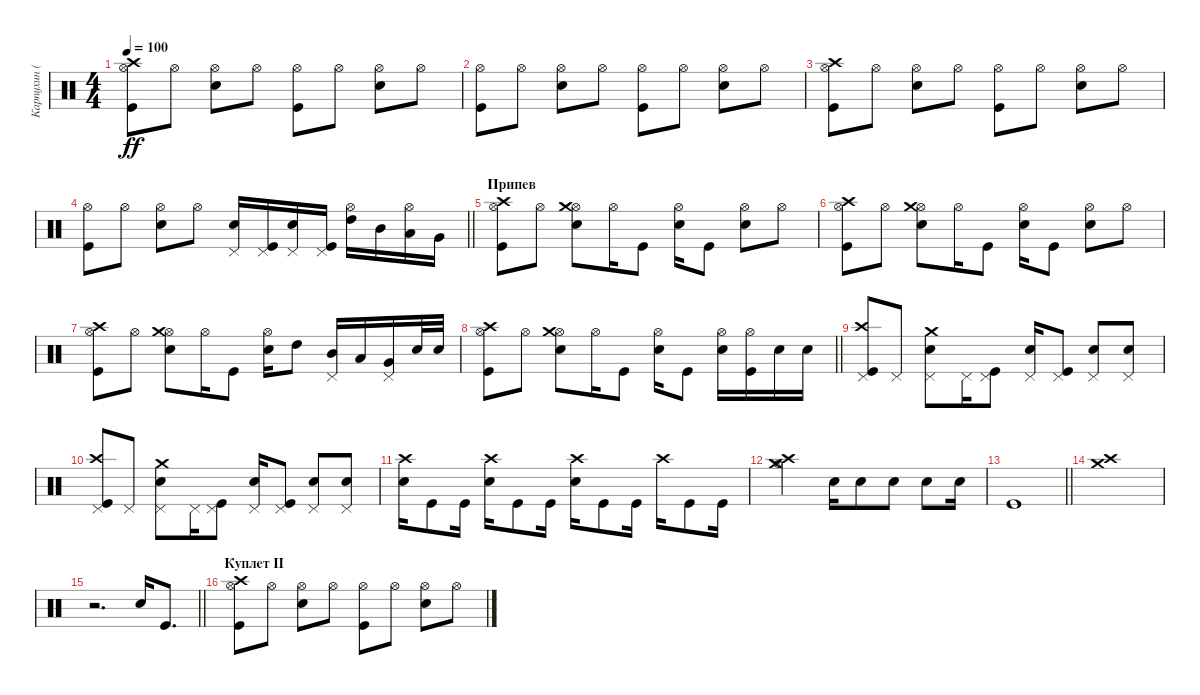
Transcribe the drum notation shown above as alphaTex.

\track ("Карпухин (ударные)" "Карпухин (") {instrument percussion}
\staff {score}
\articulation defaults
\ts (4 4)
\tempo 100
\clef neutral
\ks c
("Hi-Hat (open)" "Kick (hit)" "Crash high (hit)").8{dy ff} "Hi-Hat (open)".8 ("Hi-Hat (open)" "Snare (hit) 2").8 "Hi-Hat (open)".8 ("Hi-Hat (open)" "Kick (hit)").8 "Hi-Hat (open)".8 ("Hi-Hat (open)" "Snare (hit) 2").8 "Hi-Hat (open)".8 |
("Hi-Hat (open)" "Kick (hit)").8 "Hi-Hat (open)".8 ("Hi-Hat (open)" "Snare (hit) 2").8 "Hi-Hat (open)".8 ("Hi-Hat (open)" "Kick (hit)").8 "Hi-Hat (open)".8 ("Hi-Hat (open)" "Snare (hit) 2").8 "Hi-Hat (open)".8 |
("Hi-Hat (open)" "Kick (hit)" "Crash high (hit)").8 "Hi-Hat (open)".8 ("Hi-Hat (open)" "Snare (hit) 2").8 "Hi-Hat (open)".8 ("Hi-Hat (open)" "Kick (hit)").8 "Hi-Hat (open)".8 ("Hi-Hat (open)" "Snare (hit) 2").8 "Hi-Hat (open)".8 |
\barLineRight lightlight
("Hi-Hat (open)" "Kick (hit)").8 "Hi-Hat (open)".8 ("Hi-Hat (open)" "Snare (hit) 2").8 "Hi-Hat (open)".8 ("Pedal Hi-Hat (hit)" "Snare (hit) 2").16 ("Pedal Hi-Hat (hit)" "Kick (hit)").16 ("Pedal Hi-Hat (hit)" "Electric Snare (hit)").16 ("Pedal Hi-Hat (hit)" "Kick (hit)").16 ("Hi-Hat (open)" "High Tom (hit)").16 "Mid Tom (hit)".16 ("Hi-Hat (open)" "Low Tom (hit)").16 "Very Low Tom (hit)".16 |
\section ("" "Припев")
("Hi-Hat (open)" "Kick (hit)" "Crash high (hit)").8 "Hi-Hat (open)".8 ("Hi-Hat (open)" "Snare (hit) 2" "Crash medium (hit)").8 "Hi-Hat (open)".16 "Kick (hit)".8 ("Hi-Hat (open)" "Snare (hit) 2").16 "Kick (hit)".8 ("Hi-Hat (open)" "Snare (hit) 2").8 "Hi-Hat (open)".8 |
("Hi-Hat (open)" "Kick (hit)" "Crash high (hit)").8 "Hi-Hat (open)".8 ("Hi-Hat (open)" "Snare (hit) 2" "Crash medium (hit)").8 "Hi-Hat (open)".16 "Kick (hit)".8 ("Hi-Hat (open)" "Snare (hit) 2").16 "Kick (hit)".8 ("Hi-Hat (open)" "Snare (hit) 2").8 "Hi-Hat (open)".8 |
("Hi-Hat (open)" "Kick (hit)" "Crash high (hit)").8 "Hi-Hat (open)".8 ("Hi-Hat (open)" "Snare (hit) 2" "Crash medium (hit)").8 "Hi-Hat (open)".16 "Kick (hit)".8 ("Hi-Hat (open)" "Snare (hit) 2").16 "High Tom (hit)".8 ("Pedal Hi-Hat (hit)" "Mid Tom (hit)").16 "Low Tom (hit)".16 ("Pedal Hi-Hat (hit)" "Very Low Tom (hit)").16 "Electric Snare (hit)".32 "Snare (hit) 2".32 |
\barLineRight lightlight
("Hi-Hat (open)" "Kick (hit)" "Crash high (hit)").8 "Hi-Hat (open)".8 ("Hi-Hat (open)" "Snare (hit) 2" "Crash medium (hit)").8 "Hi-Hat (open)".16 "Kick (hit)".8 ("Hi-Hat (open)" "Snare (hit) 2").16 "Kick (hit)".8 ("Hi-Hat (open)" "Snare (hit) 2").16 ("Hi-Hat (open)" "Kick (hit)").16 "Snare (hit) 2".16 "Snare (hit) 2".16 |
("Pedal Hi-Hat (hit)" "Kick (hit)" "Crash high (hit)").8 "Pedal Hi-Hat (hit)".8 ("Pedal Hi-Hat (hit)" "Snare (hit) 2" "Crash medium (hit)").8 "Pedal Hi-Hat (hit)".16 ("Pedal Hi-Hat (hit)" "Kick (hit)").8 ("Pedal Hi-Hat (hit)" "Snare (hit) 2").16 ("Pedal Hi-Hat (hit)" "Kick (hit)").8 ("Pedal Hi-Hat (hit)" "Snare (hit) 2").8 ("Pedal Hi-Hat (hit)" "Snare (hit) 2").8 |
("Pedal Hi-Hat (hit)" "Kick (hit)" "Crash high (hit)").8 "Pedal Hi-Hat (hit)".8 ("Pedal Hi-Hat (hit)" "Snare (hit) 2" "Crash medium (hit)").8 "Pedal Hi-Hat (hit)".16 ("Pedal Hi-Hat (hit)" "Kick (hit)").8 ("Pedal Hi-Hat (hit)" "Snare (hit) 2").16 ("Pedal Hi-Hat (hit)" "Kick (hit)").8 ("Pedal Hi-Hat (hit)" "Snare (hit) 2").8 ("Pedal Hi-Hat (hit)" "Snare (hit) 2").8 |
("Snare (hit) 2" "Crash high (hit)").16 "Kick (hit)".8 "Kick (hit)".16 ("Snare (hit) 2" "Crash high (hit)").16 "Kick (hit)".8 "Kick (hit)".16 ("Snare (hit) 2" "Crash high (hit)").16 "Kick (hit)".8 "Kick (hit)".16 "Crash high (hit)".16 "Kick (hit)".8 "Kick (hit)".16 |
("Crash high (hit)" "Crash medium (hit)" "Hi-Hat (open)").2 "Snare (hit) 2".16 "Snare (hit) 2".8 "Snare (hit) 2".8 "Snare (hit) 2".8 "Snare (hit) 2".16 |
\barLineRight lightlight "Kick (hit)".1
|
("Crash high (hit)" "Crash medium (hit)").1 |
\barLineRight lightlight
r.2{d} "Snare (hit) 2".16 "Kick (hit)".8{d} |
\section ("" "Куплет II")
("Hi-Hat (open)" "Kick (hit)" "Crash high (hit)").8 "Hi-Hat (open)".8 ("Hi-Hat (open)" "Snare (hit) 2").8 "Hi-Hat (open)".8 ("Hi-Hat (open)" "Kick (hit)").8 "Hi-Hat (open)".8 ("Hi-Hat (open)" "Snare (hit) 2").8 "Hi-Hat (open)".8
